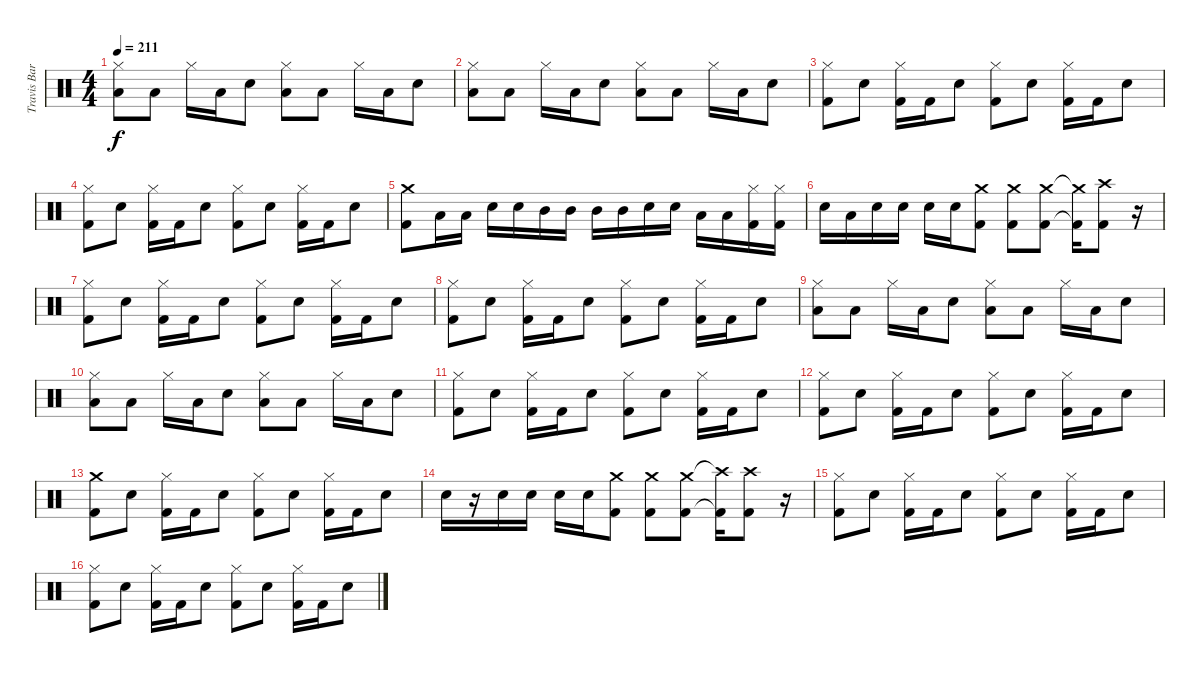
\track ("Travis Barker (Drums)" "Travis Bar") {instrument percussion}
\staff {score}
\articulation defaults
\ts (4 4)
\tempo 211
\clef neutral
\ks c
("Low Floor Tom (hit)" "Hi-Hat (closed)").8{dy f} "Low Floor Tom (hit)".8 "Hi-Hat (closed)".16 "Low Floor Tom (hit)".16 "Electric Snare (hit)".8 ("Low Floor Tom (hit)" "Hi-Hat (closed)").8 "Low Floor Tom (hit)".8 "Hi-Hat (closed)".16 "Low Floor Tom (hit)".16 "Electric Snare (hit)".8 |
("Low Floor Tom (hit)" "Hi-Hat (closed)").8 "Low Floor Tom (hit)".8 "Hi-Hat (closed)".16 "Low Floor Tom (hit)".16 "Electric Snare (hit)".8 ("Low Floor Tom (hit)" "Hi-Hat (closed)").8 "Low Floor Tom (hit)".8 "Hi-Hat (closed)".16 "Low Floor Tom (hit)".16 "Electric Snare (hit)".8 |
("Kick (hit) 2" "Hi-Hat (closed)").8 "Electric Snare (hit)".8 ("Kick (hit) 2" "Hi-Hat (closed)").16 "Kick (hit) 2".16 "Electric Snare (hit)".8 ("Kick (hit) 2" "Hi-Hat (closed)").8 "Electric Snare (hit)".8 ("Kick (hit) 2" "Hi-Hat (closed)").16 "Kick (hit) 2".16 "Electric Snare (hit)".8 |
("Kick (hit) 2" "Hi-Hat (closed)").8 "Electric Snare (hit)".8 ("Kick (hit) 2" "Hi-Hat (closed)").16 "Kick (hit) 2".16 "Electric Snare (hit)".8 ("Kick (hit) 2" "Hi-Hat (closed)").8 "Electric Snare (hit)".8 ("Kick (hit) 2" "Hi-Hat (closed)").16 "Kick (hit) 2".16 "Electric Snare (hit)".8 |
("Kick (hit) 2" "Crash medium (hit)").8 "Low Floor Tom (hit)".16 "Low Floor Tom (hit)".16 "Electric Snare (hit)".16 "Electric Snare (hit)".16 "Mid Tom (hit)".16 "Mid Tom (hit)".16 "Mid Tom (hit)".16 "Mid Tom (hit)".16 "Electric Snare (hit)".16 "Electric Snare (hit)".16 "Low Floor Tom (hit)".16 "Low Floor Tom (hit)".16 ("Kick (hit) 2" "Hi-Hat (closed)").16 ("Kick (hit) 2" "Hi-Hat (closed)").16 |
"Electric Snare (hit)".16 "Low Floor Tom (hit)".16 "Electric Snare (hit)".16 "Electric Snare (hit)".16 "Electric Snare (hit)".16 "Electric Snare (hit)".16 ("Crash medium (hit)" "Kick (hit) 2").8 ("Crash medium (hit)" "Kick (hit) 2").8 ("Crash medium (hit)" "Kick (hit) 2").8 ("Crash medium (hit)"{t} "Kick (hit) 2"{t}).16 ("Crash high (hit)" "Kick (hit) 2").8 r.16 |
("Kick (hit) 2" "Hi-Hat (closed)").8 "Electric Snare (hit)".8 ("Kick (hit) 2" "Hi-Hat (closed)").16 "Kick (hit) 2".16 "Electric Snare (hit)".8 ("Kick (hit) 2" "Hi-Hat (closed)").8 "Electric Snare (hit)".8 ("Kick (hit) 2" "Hi-Hat (closed)").16 "Kick (hit) 2".16 "Electric Snare (hit)".8 |
("Kick (hit) 2" "Hi-Hat (closed)").8 "Electric Snare (hit)".8 ("Kick (hit) 2" "Hi-Hat (closed)").16 "Kick (hit) 2".16 "Electric Snare (hit)".8 ("Kick (hit) 2" "Hi-Hat (closed)").8 "Electric Snare (hit)".8 ("Kick (hit) 2" "Hi-Hat (closed)").16 "Kick (hit) 2".16 "Electric Snare (hit)".8 |
("Low Floor Tom (hit)" "Hi-Hat (closed)").8 "Low Floor Tom (hit)".8 "Hi-Hat (closed)".16 "Low Floor Tom (hit)".16 "Electric Snare (hit)".8 ("Low Floor Tom (hit)" "Hi-Hat (closed)").8 "Low Floor Tom (hit)".8 "Hi-Hat (closed)".16 "Low Floor Tom (hit)".16 "Electric Snare (hit)".8 |
("Low Floor Tom (hit)" "Hi-Hat (closed)").8 "Low Floor Tom (hit)".8 "Hi-Hat (closed)".16 "Low Floor Tom (hit)".16 "Electric Snare (hit)".8 ("Low Floor Tom (hit)" "Hi-Hat (closed)").8 "Low Floor Tom (hit)".8 "Hi-Hat (closed)".16 "Low Floor Tom (hit)".16 "Electric Snare (hit)".8 |
("Kick (hit) 2" "Hi-Hat (closed)").8 "Electric Snare (hit)".8 ("Kick (hit) 2" "Hi-Hat (closed)").16 "Kick (hit) 2".16 "Electric Snare (hit)".8 ("Kick (hit) 2" "Hi-Hat (closed)").8 "Electric Snare (hit)".8 ("Kick (hit) 2" "Hi-Hat (closed)").16 "Kick (hit) 2".16 "Electric Snare (hit)".8 |
("Kick (hit) 2" "Hi-Hat (closed)").8 "Electric Snare (hit)".8 ("Kick (hit) 2" "Hi-Hat (closed)").16 "Kick (hit) 2".16 "Electric Snare (hit)".8 ("Kick (hit) 2" "Hi-Hat (closed)").8 "Electric Snare (hit)".8 ("Kick (hit) 2" "Hi-Hat (closed)").16 "Kick (hit) 2".16 "Electric Snare (hit)".8 |
("Kick (hit) 2" "Crash medium (hit)").8 "Electric Snare (hit)".8 ("Kick (hit) 2" "Hi-Hat (closed)").16 "Kick (hit) 2".16 "Electric Snare (hit)".8 ("Kick (hit) 2" "Hi-Hat (closed)").8 "Electric Snare (hit)".8 ("Kick (hit) 2" "Hi-Hat (closed)").16 "Kick (hit) 2".16 "Electric Snare (hit)".8 |
"Electric Snare (hit)".16 r.16 "Electric Snare (hit)".16 "Electric Snare (hit)".16 "Electric Snare (hit)".16 "Electric Snare (hit)".16 ("Crash medium (hit)" "Kick (hit) 2").8 ("Crash medium (hit)" "Kick (hit) 2").8 ("Crash medium (hit)" "Kick (hit) 2").8 ("Crash high (hit)"{t} "Kick (hit) 2"{t}).16 ("Crash high (hit)" "Kick (hit) 2").8 r.16 |
("Kick (hit) 2" "Hi-Hat (closed)").8 "Electric Snare (hit)".8 ("Kick (hit) 2" "Hi-Hat (closed)").16 "Kick (hit) 2".16 "Electric Snare (hit)".8 ("Kick (hit) 2" "Hi-Hat (closed)").8 "Electric Snare (hit)".8 ("Kick (hit) 2" "Hi-Hat (closed)").16 "Kick (hit) 2".16 "Electric Snare (hit)".8 |
("Kick (hit) 2" "Hi-Hat (closed)").8 "Electric Snare (hit)".8 ("Kick (hit) 2" "Hi-Hat (closed)").16 "Kick (hit) 2".16 "Electric Snare (hit)".8 ("Kick (hit) 2" "Hi-Hat (closed)").8 "Electric Snare (hit)".8 ("Kick (hit) 2" "Hi-Hat (closed)").16 "Kick (hit) 2".16 "Electric Snare (hit)".8
